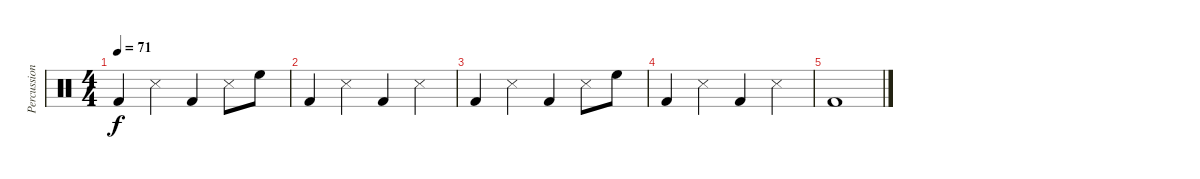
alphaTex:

\track ("Percussions" "Percussion") {instrument percussion}
\staff {score}
\articulation defaults
\ts (4 4)
\tempo 71
\clef neutral
\ks c "Kick (hit) 2".4{dy f} "Snare (side stick) 3".4 "Kick (hit) 2".4 "Snare (side stick) 3".8 "High Floor Tom (hit)".8
|
"Kick (hit) 2".4 "Snare (side stick) 3".4 "Kick (hit) 2".4 "Snare (side stick) 3".4 |
"Kick (hit) 2".4 "Snare (side stick) 3".4 "Kick (hit) 2".4 "Snare (side stick) 3".8 "High Floor Tom (hit)".8 |
"Kick (hit) 2".4 "Snare (side stick) 3".4 "Kick (hit) 2".4 "Snare (side stick) 3".4 |
"Kick (hit) 2".1
